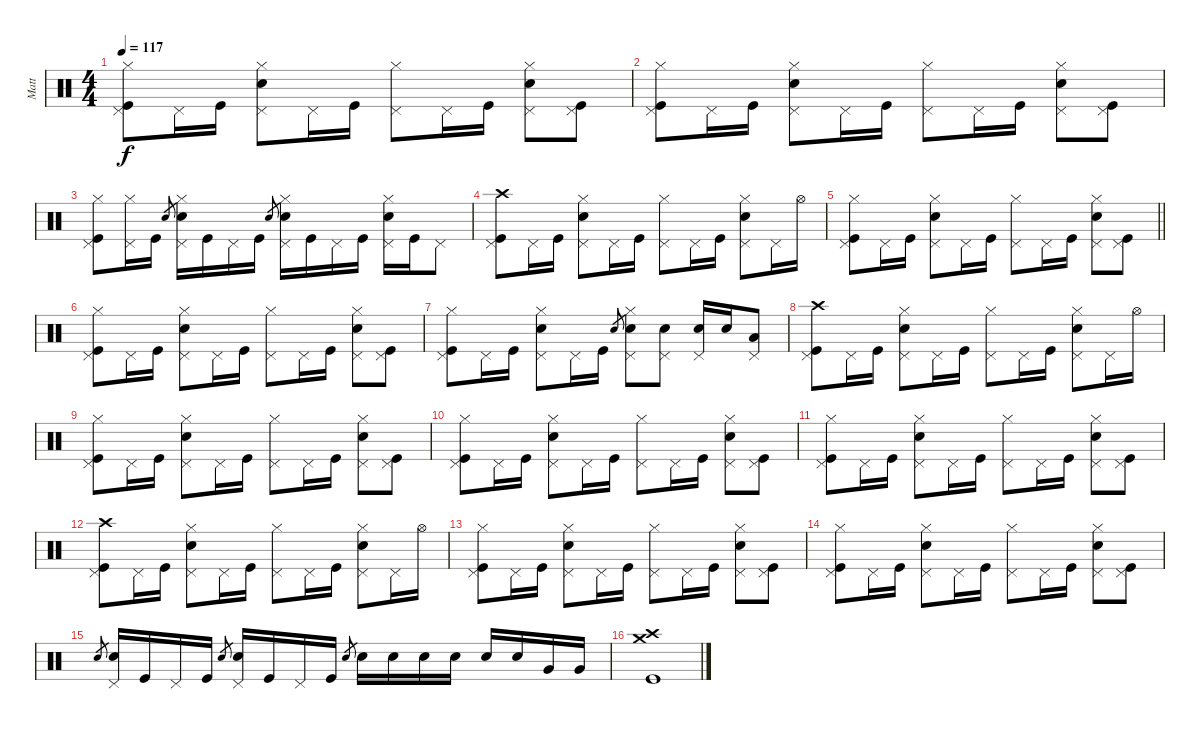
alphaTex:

\track ("Matt" "Matt") {instrument percussion}
\staff {score}
\articulation defaults
\ts (4 4)
\tempo 117
\clef neutral
\ks c
("Hi-Hat (closed)" "Kick (hit)" "Pedal Hi-Hat (hit)").8{dy f} "Pedal Hi-Hat (hit)".16 "Kick (hit)".16 ("Hi-Hat (closed)" "Snare (hit) 2" "Pedal Hi-Hat (hit)").8 "Pedal Hi-Hat (hit)".16 "Kick (hit)".16 ("Hi-Hat (closed)" "Pedal Hi-Hat (hit)").8 "Pedal Hi-Hat (hit)".16 "Kick (hit)".16 ("Hi-Hat (closed)" "Snare (hit) 2" "Pedal Hi-Hat (hit)").8 ("Kick (hit)" "Pedal Hi-Hat (hit)").8 |
("Hi-Hat (closed)" "Kick (hit)" "Pedal Hi-Hat (hit)").8 "Pedal Hi-Hat (hit)".16 "Kick (hit)".16 ("Hi-Hat (closed)" "Snare (hit) 2" "Pedal Hi-Hat (hit)").8 "Pedal Hi-Hat (hit)".16 "Kick (hit)".16 ("Hi-Hat (closed)" "Pedal Hi-Hat (hit)").8 "Pedal Hi-Hat (hit)".16 "Kick (hit)".16 ("Hi-Hat (closed)" "Snare (hit) 2" "Pedal Hi-Hat (hit)").8 ("Kick (hit)" "Pedal Hi-Hat (hit)").8 |
("Hi-Hat (closed)" "Kick (hit)" "Pedal Hi-Hat (hit)").8 ("Hi-Hat (closed)" "Pedal Hi-Hat (hit)").16 "Kick (hit)".16 "Snare (hit) 2".8{gr} ("Hi-Hat (closed)" "Snare (hit) 2" "Pedal Hi-Hat (hit)").16 "Kick (hit)".16 "Pedal Hi-Hat (hit)".16 "Kick (hit)".16 "Snare (hit) 2".8{gr} ("Hi-Hat (closed)" "Snare (hit) 2" "Pedal Hi-Hat (hit)").16 "Kick (hit)".16 "Pedal Hi-Hat (hit)".16 "Kick (hit)".16 ("Hi-Hat (closed)" "Snare (hit) 2" "Pedal Hi-Hat (hit)").16 "Kick (hit)".16 "Pedal Hi-Hat (hit)".8 |
("Crash high (hit)" "Kick (hit)" "Pedal Hi-Hat (hit)").8 "Pedal Hi-Hat (hit)".16 "Kick (hit)".16 ("Hi-Hat (closed)" "Snare (hit) 2" "Pedal Hi-Hat (hit)").8 "Pedal Hi-Hat (hit)".16 "Kick (hit)".16 ("Hi-Hat (closed)" "Pedal Hi-Hat (hit)").8 "Pedal Hi-Hat (hit)".16 "Kick (hit)".16 ("Hi-Hat (closed)" "Snare (hit) 2" "Pedal Hi-Hat (hit)").8 "Pedal Hi-Hat (hit)".16 "Hi-Hat (open)".16 |
\barLineRight lightlight
("Hi-Hat (closed)" "Kick (hit)" "Pedal Hi-Hat (hit)").8 "Pedal Hi-Hat (hit)".16 "Kick (hit)".16 ("Hi-Hat (closed)" "Snare (hit) 2" "Pedal Hi-Hat (hit)").8 "Pedal Hi-Hat (hit)".16 "Kick (hit)".16 ("Hi-Hat (closed)" "Pedal Hi-Hat (hit)").8 "Pedal Hi-Hat (hit)".16 "Kick (hit)".16 ("Hi-Hat (closed)" "Snare (hit) 2" "Pedal Hi-Hat (hit)").8 ("Kick (hit)" "Pedal Hi-Hat (hit)").8 |
("Hi-Hat (closed)" "Kick (hit)" "Pedal Hi-Hat (hit)").8 "Pedal Hi-Hat (hit)".16 "Kick (hit)".16 ("Hi-Hat (closed)" "Snare (hit) 2" "Pedal Hi-Hat (hit)").8 "Pedal Hi-Hat (hit)".16 "Kick (hit)".16 ("Hi-Hat (closed)" "Pedal Hi-Hat (hit)").8 "Pedal Hi-Hat (hit)".16 "Kick (hit)".16 ("Hi-Hat (closed)" "Snare (hit) 2" "Pedal Hi-Hat (hit)").8 ("Kick (hit)" "Pedal Hi-Hat (hit)").8 |
("Hi-Hat (closed)" "Kick (hit)" "Pedal Hi-Hat (hit)").8 "Pedal Hi-Hat (hit)".16 "Kick (hit)".16 ("Hi-Hat (closed)" "Snare (hit) 2" "Pedal Hi-Hat (hit)").8 "Pedal Hi-Hat (hit)".16 "Kick (hit)".16 "Snare (hit) 2".8{gr} ("Hi-Hat (closed)" "Snare (hit) 2" "Pedal Hi-Hat (hit)").8 ("Snare (hit) 2" "Pedal Hi-Hat (hit)").8 ("Snare (hit) 2" "Pedal Hi-Hat (hit)").16 "Snare (hit) 2".16 ("Low Tom (hit)" "Pedal Hi-Hat (hit)").8 |
("Crash high (hit)" "Kick (hit)" "Pedal Hi-Hat (hit)").8 "Pedal Hi-Hat (hit)".16 "Kick (hit)".16 ("Hi-Hat (closed)" "Snare (hit) 2" "Pedal Hi-Hat (hit)").8 "Pedal Hi-Hat (hit)".16 "Kick (hit)".16 ("Hi-Hat (closed)" "Pedal Hi-Hat (hit)").8 "Pedal Hi-Hat (hit)".16 "Kick (hit)".16 ("Hi-Hat (closed)" "Snare (hit) 2" "Pedal Hi-Hat (hit)").8 "Pedal Hi-Hat (hit)".16 "Hi-Hat (open)".16 |
("Hi-Hat (closed)" "Kick (hit)" "Pedal Hi-Hat (hit)").8 "Pedal Hi-Hat (hit)".16 "Kick (hit)".16 ("Hi-Hat (closed)" "Snare (hit) 2" "Pedal Hi-Hat (hit)").8 "Pedal Hi-Hat (hit)".16 "Kick (hit)".16 ("Hi-Hat (closed)" "Pedal Hi-Hat (hit)").8 "Pedal Hi-Hat (hit)".16 "Kick (hit)".16 ("Hi-Hat (closed)" "Snare (hit) 2" "Pedal Hi-Hat (hit)").8 ("Kick (hit)" "Pedal Hi-Hat (hit)").8 |
("Hi-Hat (closed)" "Kick (hit)" "Pedal Hi-Hat (hit)").8 "Pedal Hi-Hat (hit)".16 "Kick (hit)".16 ("Hi-Hat (closed)" "Snare (hit) 2" "Pedal Hi-Hat (hit)").8 "Pedal Hi-Hat (hit)".16 "Kick (hit)".16 ("Hi-Hat (closed)" "Pedal Hi-Hat (hit)").8 "Pedal Hi-Hat (hit)".16 "Kick (hit)".16 ("Hi-Hat (closed)" "Snare (hit) 2" "Pedal Hi-Hat (hit)").8 ("Kick (hit)" "Pedal Hi-Hat (hit)").8 |
("Hi-Hat (closed)" "Kick (hit)" "Pedal Hi-Hat (hit)").8 "Pedal Hi-Hat (hit)".16 "Kick (hit)".16 ("Hi-Hat (closed)" "Snare (hit) 2" "Pedal Hi-Hat (hit)").8 "Pedal Hi-Hat (hit)".16 "Kick (hit)".16 ("Hi-Hat (closed)" "Pedal Hi-Hat (hit)").8 "Pedal Hi-Hat (hit)".16 "Kick (hit)".16 ("Hi-Hat (closed)" "Snare (hit) 2" "Pedal Hi-Hat (hit)").8 ("Kick (hit)" "Pedal Hi-Hat (hit)").8 |
("Crash high (hit)" "Kick (hit)" "Pedal Hi-Hat (hit)").8 "Pedal Hi-Hat (hit)".16 "Kick (hit)".16 ("Hi-Hat (closed)" "Snare (hit) 2" "Pedal Hi-Hat (hit)").8 "Pedal Hi-Hat (hit)".16 "Kick (hit)".16 ("Hi-Hat (closed)" "Pedal Hi-Hat (hit)").8 "Pedal Hi-Hat (hit)".16 "Kick (hit)".16 ("Hi-Hat (closed)" "Snare (hit) 2" "Pedal Hi-Hat (hit)").8 "Pedal Hi-Hat (hit)".16 "Hi-Hat (open)".16 |
("Hi-Hat (closed)" "Kick (hit)" "Pedal Hi-Hat (hit)").8 "Pedal Hi-Hat (hit)".16 "Kick (hit)".16 ("Hi-Hat (closed)" "Snare (hit) 2" "Pedal Hi-Hat (hit)").8 "Pedal Hi-Hat (hit)".16 "Kick (hit)".16 ("Hi-Hat (closed)" "Pedal Hi-Hat (hit)").8 "Pedal Hi-Hat (hit)".16 "Kick (hit)".16 ("Hi-Hat (closed)" "Snare (hit) 2" "Pedal Hi-Hat (hit)").8 ("Kick (hit)" "Pedal Hi-Hat (hit)").8 |
("Hi-Hat (closed)" "Kick (hit)" "Pedal Hi-Hat (hit)").8 "Pedal Hi-Hat (hit)".16 "Kick (hit)".16 ("Hi-Hat (closed)" "Snare (hit) 2" "Pedal Hi-Hat (hit)").8 "Pedal Hi-Hat (hit)".16 "Kick (hit)".16 ("Hi-Hat (closed)" "Pedal Hi-Hat (hit)").8 "Pedal Hi-Hat (hit)".16 "Kick (hit)".16 ("Hi-Hat (closed)" "Snare (hit) 2" "Pedal Hi-Hat (hit)").8 ("Kick (hit)" "Pedal Hi-Hat (hit)").8 |
"Snare (hit) 2".8{gr} ("Snare (hit) 2" "Pedal Hi-Hat (hit)").16 "Kick (hit)".16 "Pedal Hi-Hat (hit)".16 "Kick (hit)".16 "Snare (hit) 2".8{gr} ("Snare (hit) 2" "Pedal Hi-Hat (hit)").16 "Kick (hit)".16 "Pedal Hi-Hat (hit)".16 "Kick (hit)".16 "Snare (hit) 2".8{gr} "Snare (hit) 2".16 "Snare (hit) 2".16 "Snare (hit) 2".16 "Snare (hit) 2".16 "Snare (hit) 2".16 "Snare (hit) 2".16 "Very Low Tom (hit)".16 "Very Low Tom (hit)".16 |
("Crash high (hit)" "Crash medium (hit)" "Kick (hit)").1
